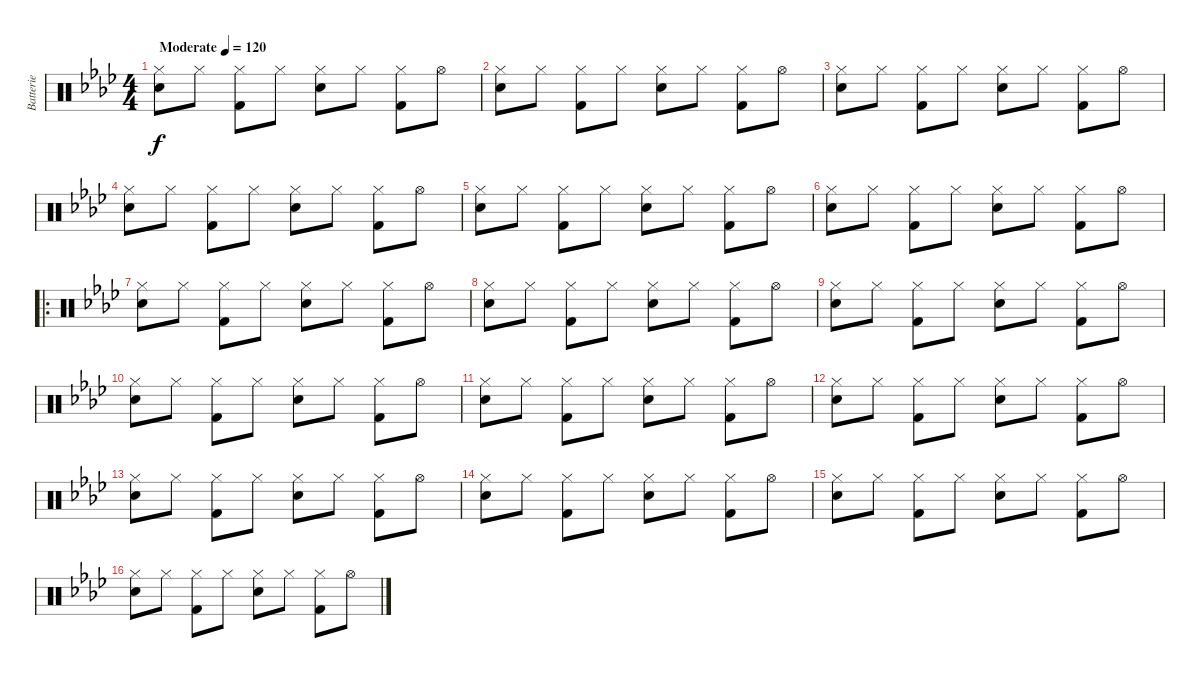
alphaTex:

\track ("Batterie" "Batterie") {instrument percussion}
\staff {score}
\articulation defaults
\ts (4 4)
\tempo (120 "Moderate")
\clef neutral
\ks ab
("Hi-Hat (closed)" "Snare (hit) 2").8{dy f} "Hi-Hat (closed)".8 ("Hi-Hat (closed)" "Kick (hit) 2").8 "Hi-Hat (closed)".8 ("Hi-Hat (closed)" "Snare (hit) 2").8 "Hi-Hat (closed)".8 ("Hi-Hat (closed)" "Kick (hit) 2").8 "Hi-Hat (open)".8 |
("Hi-Hat (closed)" "Snare (hit) 2").8 "Hi-Hat (closed)".8 ("Hi-Hat (closed)" "Kick (hit) 2").8 "Hi-Hat (closed)".8 ("Hi-Hat (closed)" "Snare (hit) 2").8 "Hi-Hat (closed)".8 ("Hi-Hat (closed)" "Kick (hit) 2").8 "Hi-Hat (open)".8 |
("Hi-Hat (closed)" "Snare (hit) 2").8 "Hi-Hat (closed)".8 ("Hi-Hat (closed)" "Kick (hit) 2").8 "Hi-Hat (closed)".8 ("Hi-Hat (closed)" "Snare (hit) 2").8 "Hi-Hat (closed)".8 ("Hi-Hat (closed)" "Kick (hit) 2").8 "Hi-Hat (open)".8 |
("Hi-Hat (closed)" "Snare (hit) 2").8 "Hi-Hat (closed)".8 ("Hi-Hat (closed)" "Kick (hit) 2").8 "Hi-Hat (closed)".8 ("Hi-Hat (closed)" "Snare (hit) 2").8 "Hi-Hat (closed)".8 ("Hi-Hat (closed)" "Kick (hit) 2").8 "Hi-Hat (open)".8 |
("Hi-Hat (closed)" "Snare (hit) 2").8 "Hi-Hat (closed)".8 ("Hi-Hat (closed)" "Kick (hit) 2").8 "Hi-Hat (closed)".8 ("Hi-Hat (closed)" "Snare (hit) 2").8 "Hi-Hat (closed)".8 ("Hi-Hat (closed)" "Kick (hit) 2").8 "Hi-Hat (open)".8 |
("Hi-Hat (closed)" "Snare (hit) 2").8 "Hi-Hat (closed)".8 ("Hi-Hat (closed)" "Kick (hit) 2").8 "Hi-Hat (closed)".8 ("Hi-Hat (closed)" "Snare (hit) 2").8 "Hi-Hat (closed)".8 ("Hi-Hat (closed)" "Kick (hit) 2").8 "Hi-Hat (open)".8 |
\ro
("Hi-Hat (closed)" "Snare (hit) 2").8 "Hi-Hat (closed)".8 ("Hi-Hat (closed)" "Kick (hit) 2").8 "Hi-Hat (closed)".8 ("Hi-Hat (closed)" "Snare (hit) 2").8 "Hi-Hat (closed)".8 ("Hi-Hat (closed)" "Kick (hit) 2").8 "Hi-Hat (open)".8 |
("Hi-Hat (closed)" "Snare (hit) 2").8 "Hi-Hat (closed)".8 ("Hi-Hat (closed)" "Kick (hit) 2").8 "Hi-Hat (closed)".8 ("Hi-Hat (closed)" "Snare (hit) 2").8 "Hi-Hat (closed)".8 ("Hi-Hat (closed)" "Kick (hit) 2").8 "Hi-Hat (open)".8 |
("Hi-Hat (closed)" "Snare (hit) 2").8 "Hi-Hat (closed)".8 ("Hi-Hat (closed)" "Kick (hit) 2").8 "Hi-Hat (closed)".8 ("Hi-Hat (closed)" "Snare (hit) 2").8 "Hi-Hat (closed)".8 ("Hi-Hat (closed)" "Kick (hit) 2").8 "Hi-Hat (open)".8 |
("Hi-Hat (closed)" "Snare (hit) 2").8 "Hi-Hat (closed)".8 ("Hi-Hat (closed)" "Kick (hit) 2").8 "Hi-Hat (closed)".8 ("Hi-Hat (closed)" "Snare (hit) 2").8 "Hi-Hat (closed)".8 ("Hi-Hat (closed)" "Kick (hit) 2").8 "Hi-Hat (open)".8 |
("Hi-Hat (closed)" "Snare (hit) 2").8 "Hi-Hat (closed)".8 ("Hi-Hat (closed)" "Kick (hit) 2").8 "Hi-Hat (closed)".8 ("Hi-Hat (closed)" "Snare (hit) 2").8 "Hi-Hat (closed)".8 ("Hi-Hat (closed)" "Kick (hit) 2").8 "Hi-Hat (open)".8 |
("Hi-Hat (closed)" "Snare (hit) 2").8 "Hi-Hat (closed)".8 ("Hi-Hat (closed)" "Kick (hit) 2").8 "Hi-Hat (closed)".8 ("Hi-Hat (closed)" "Snare (hit) 2").8 "Hi-Hat (closed)".8 ("Hi-Hat (closed)" "Kick (hit) 2").8 "Hi-Hat (open)".8 |
("Hi-Hat (closed)" "Snare (hit) 2").8 "Hi-Hat (closed)".8 ("Hi-Hat (closed)" "Kick (hit) 2").8 "Hi-Hat (closed)".8 ("Hi-Hat (closed)" "Snare (hit) 2").8 "Hi-Hat (closed)".8 ("Hi-Hat (closed)" "Kick (hit) 2").8 "Hi-Hat (open)".8 |
("Hi-Hat (closed)" "Snare (hit) 2").8 "Hi-Hat (closed)".8 ("Hi-Hat (closed)" "Kick (hit) 2").8 "Hi-Hat (closed)".8 ("Hi-Hat (closed)" "Snare (hit) 2").8 "Hi-Hat (closed)".8 ("Hi-Hat (closed)" "Kick (hit) 2").8 "Hi-Hat (open)".8 |
("Hi-Hat (closed)" "Snare (hit) 2").8 "Hi-Hat (closed)".8 ("Hi-Hat (closed)" "Kick (hit) 2").8 "Hi-Hat (closed)".8 ("Hi-Hat (closed)" "Snare (hit) 2").8 "Hi-Hat (closed)".8 ("Hi-Hat (closed)" "Kick (hit) 2").8 "Hi-Hat (open)".8 |
("Hi-Hat (closed)" "Snare (hit) 2").8 "Hi-Hat (closed)".8 ("Hi-Hat (closed)" "Kick (hit) 2").8 "Hi-Hat (closed)".8 ("Hi-Hat (closed)" "Snare (hit) 2").8 "Hi-Hat (closed)".8 ("Hi-Hat (closed)" "Kick (hit) 2").8 "Hi-Hat (open)".8
